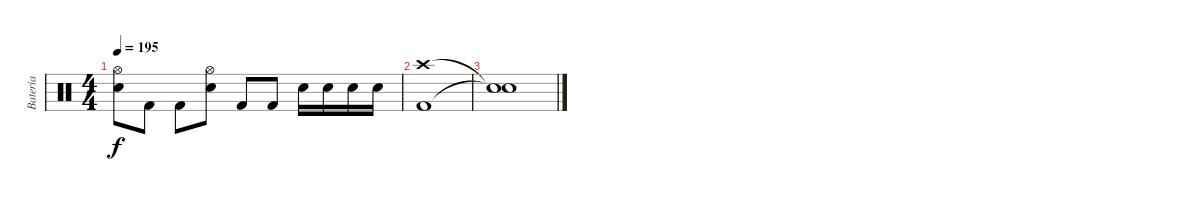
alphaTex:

\track ("Batería" "Batería") {instrument percussion}
\staff {score}
\articulation defaults
\ts (4 4)
\tempo 195
\clef neutral
\ks c
("Hi-Hat (open)" "Snare (hit) 2").8{dy f} "Kick (hit) 2".8 "Kick (hit) 2".8 ("Hi-Hat (open)" "Snare (hit) 2").8 "Kick (hit) 2".8 "Kick (hit) 2".8 "Snare (hit) 2".16 "Snare (hit) 2".16 "Snare (hit) 2".16 "Snare (hit) 2".16 |
("Crash high (hit)" "Kick (hit) 2").1 |
("Snare (hit)"{t} "Snare (hit)"{t}).1
